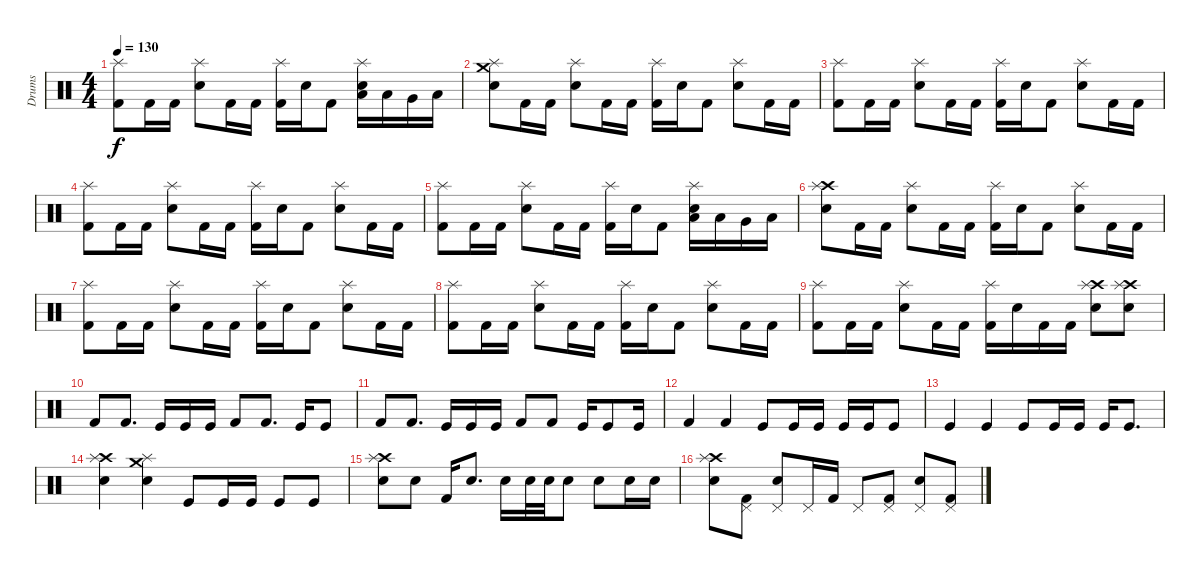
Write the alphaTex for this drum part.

\track ("Drums" "Drums") {instrument percussion}
\staff {score}
\articulation defaults
\ts (4 4)
\tempo 130
\clef neutral
\ks c
("Splash (hit)" "Kick (hit) 2").8{dy f} "Kick (hit) 2".16 "Kick (hit) 2".16 ("Splash (hit)" "Snare (hit) 2").8 "Kick (hit) 2".16 "Kick (hit) 2".16 ("Splash (hit)" "Kick (hit) 2").16 "Snare (hit) 2".16 "Kick (hit) 2".8 ("Splash (hit)" "Snare (hit) 2" "Low Tom (hit)").16 "Low Tom (hit)".16 "Very Low Tom (hit)".16 "Low Floor Tom (hit)".16 |
("Crash medium (hit)" "Splash (hit)" "Snare (hit) 2").8 "Kick (hit) 2".16 "Kick (hit) 2".16 ("Splash (hit)" "Snare (hit) 2").8 "Kick (hit) 2".16 "Kick (hit) 2".16 ("Splash (hit)" "Kick (hit) 2").16 "Snare (hit) 2".16 "Kick (hit) 2".8 ("Splash (hit)" "Snare (hit) 2").8 "Kick (hit) 2".16 "Kick (hit) 2".16 |
("Splash (hit)" "Kick (hit) 2").8 "Kick (hit) 2".16 "Kick (hit) 2".16 ("Splash (hit)" "Snare (hit) 2").8 "Kick (hit) 2".16 "Kick (hit) 2".16 ("Splash (hit)" "Kick (hit) 2").16 "Snare (hit) 2".16 "Kick (hit) 2".8 ("Splash (hit)" "Snare (hit) 2").8 "Kick (hit) 2".16 "Kick (hit) 2".16 |
("Splash (hit)" "Kick (hit) 2").8 "Kick (hit) 2".16 "Kick (hit) 2".16 ("Splash (hit)" "Snare (hit) 2").8 "Kick (hit) 2".16 "Kick (hit) 2".16 ("Splash (hit)" "Kick (hit) 2").16 "Snare (hit) 2".16 "Kick (hit) 2".8 ("Splash (hit)" "Snare (hit) 2").8 "Kick (hit) 2".16 "Kick (hit) 2".16 |
("Splash (hit)" "Kick (hit) 2").8 "Kick (hit) 2".16 "Kick (hit) 2".16 ("Splash (hit)" "Snare (hit) 2").8 "Kick (hit) 2".16 "Kick (hit) 2".16 ("Splash (hit)" "Kick (hit) 2").16 "Snare (hit) 2".16 "Kick (hit) 2".8 ("Splash (hit)" "Snare (hit) 2" "Low Tom (hit)").16 "Low Tom (hit)".16 "Very Low Tom (hit)".16 "Low Floor Tom (hit)".16 |
("Crash high (hit)" "Splash (hit)" "Snare (hit) 2").8 "Kick (hit) 2".16 "Kick (hit) 2".16 ("Splash (hit)" "Snare (hit) 2").8 "Kick (hit) 2".16 "Kick (hit) 2".16 ("Splash (hit)" "Kick (hit) 2").16 "Snare (hit) 2".16 "Kick (hit) 2".8 ("Splash (hit)" "Snare (hit) 2").8 "Kick (hit) 2".16 "Kick (hit) 2".16 |
("Splash (hit)" "Kick (hit) 2").8 "Kick (hit) 2".16 "Kick (hit) 2".16 ("Splash (hit)" "Snare (hit) 2").8 "Kick (hit) 2".16 "Kick (hit) 2".16 ("Splash (hit)" "Kick (hit) 2").16 "Snare (hit) 2".16 "Kick (hit) 2".8 ("Splash (hit)" "Snare (hit) 2").8 "Kick (hit) 2".16 "Kick (hit) 2".16 |
("Splash (hit)" "Kick (hit) 2").8 "Kick (hit) 2".16 "Kick (hit) 2".16 ("Splash (hit)" "Snare (hit) 2").8 "Kick (hit) 2".16 "Kick (hit) 2".16 ("Splash (hit)" "Kick (hit) 2").16 "Snare (hit) 2".16 "Kick (hit) 2".8 ("Splash (hit)" "Snare (hit) 2").8 "Kick (hit) 2".16 "Kick (hit) 2".16 |
("Splash (hit)" "Kick (hit) 2").8 "Kick (hit) 2".16 "Kick (hit) 2".16 ("Splash (hit)" "Snare (hit) 2").8 "Kick (hit) 2".16 "Kick (hit) 2".16 ("Splash (hit)" "Kick (hit) 2").16 "Snare (hit) 2".16 "Kick (hit) 2".16 "Kick (hit) 2".16 ("Crash high (hit)" "Splash (hit)" "Snare (hit) 2").8 ("Crash high (hit)" "Splash (hit)" "Snare (hit) 2").8 |
"Kick (hit) 2".8 "Kick (hit) 2".8{d} "Kick (hit)".16 "Kick (hit)".16 "Kick (hit)".16 "Kick (hit) 2".8 "Kick (hit) 2".8{d} "Kick (hit)".16 "Kick (hit)".8 |
"Kick (hit) 2".8 "Kick (hit) 2".8{d} "Kick (hit)".16 "Kick (hit)".16 "Kick (hit)".16 "Kick (hit) 2".8 "Kick (hit) 2".8 "Kick (hit)".16 "Kick (hit)".8 "Kick (hit)".16 |
"Kick (hit) 2".4 "Kick (hit) 2".4 "Kick (hit)".8 "Kick (hit)".16 "Kick (hit)".16 "Kick (hit)".16 "Kick (hit)".16 "Kick (hit)".8 |
"Kick (hit)".4 "Kick (hit)".4 "Kick (hit)".8 "Kick (hit)".16 "Kick (hit)".16 "Kick (hit)".16 "Kick (hit)".8{d} |
("Crash high (hit)" "Splash (hit)" "Snare (hit) 2").4 ("Crash medium (hit)" "Splash (hit)" "Snare (hit) 2").4 "Kick (hit)".8 "Kick (hit)".16 "Kick (hit)".16 "Kick (hit)".8 "Kick (hit)".8 |
("Crash high (hit)" "Splash (hit)" "Snare (hit) 2").8 "Snare (hit) 2".8 "Kick (hit) 2".16 "Snare (hit) 2".8{d} "Snare (hit) 2".16 "Snare (hit) 2".32 "Snare (hit) 2".32 "Snare (hit) 2".8 "Snare (hit) 2".8 "Snare (hit) 2".16 "Snare (hit) 2".16 |
("Crash high (hit)" "Splash (hit)" "Snare (hit) 2").8 ("Pedal Hi-Hat (hit)" "Kick (hit) 2").8 ("Pedal Hi-Hat (hit)" "Snare (hit) 2").8 "Pedal Hi-Hat (hit)".16 "Kick (hit) 2".16 "Pedal Hi-Hat (hit)".8 ("Pedal Hi-Hat (hit)" "Kick (hit) 2").8 ("Pedal Hi-Hat (hit)" "Snare (hit) 2").8 ("Pedal Hi-Hat (hit)" "Kick (hit) 2").8
